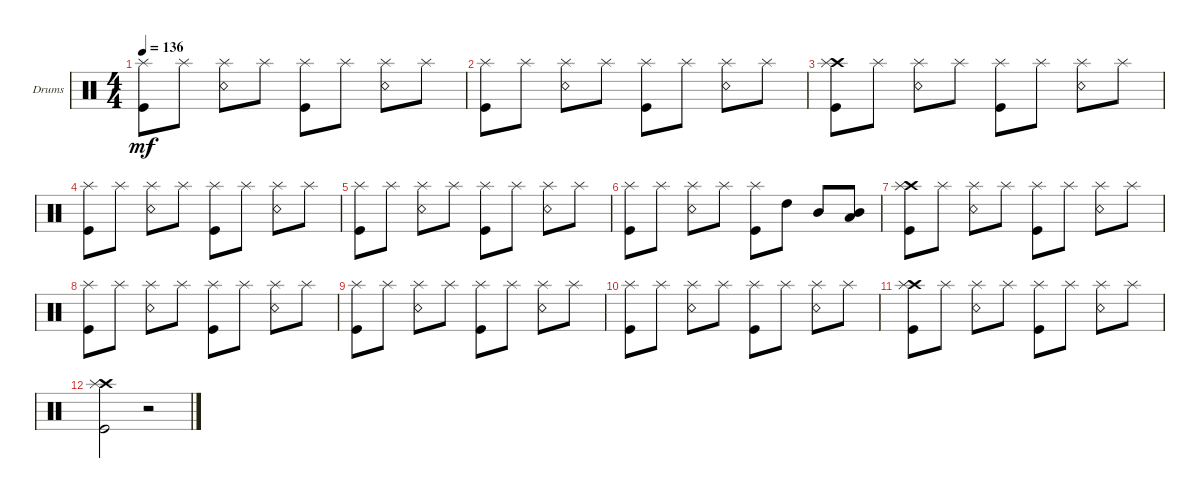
\defaultSystemsLayout 4
\bracketExtendMode groupsimilarinstruments
\firstSystemTrackNameOrientation horizontal
\otherSystemsTrackNameOrientation horizontal
\track ("Нюта" "Drums") {instrument percussion}
\staff {score}
\articulation defaults
\ts (4 4)
\tempo 136
\clef neutral
\ks c
("Kick (hit)" "Splash (hit)").8{dy mf} "Splash (hit)".8 ("Snare (rim shot)" "Splash (hit)").8 "Splash (hit)".8 ("Kick (hit)" "Splash (hit)").8 "Splash (hit)".8 ("Snare (rim shot)" "Splash (hit)").8 "Splash (hit)".8 |
("Kick (hit)" "Splash (hit)").8 "Splash (hit)".8 ("Snare (rim shot)" "Splash (hit)").8 "Splash (hit)".8 ("Kick (hit)" "Splash (hit)").8 "Splash (hit)".8 ("Snare (rim shot)" "Splash (hit)").8 "Splash (hit)".8 |
("Crash high (hit)" "Kick (hit)" "Splash (hit)").8 "Splash (hit)".8 ("Snare (rim shot)" "Splash (hit)").8 "Splash (hit)".8 ("Kick (hit)" "Splash (hit)").8 "Splash (hit)".8 ("Snare (rim shot)" "Splash (hit)").8 "Splash (hit)".8 |
("Kick (hit)" "Splash (hit)").8 "Splash (hit)".8 ("Snare (rim shot)" "Splash (hit)").8 "Splash (hit)".8 ("Kick (hit)" "Splash (hit)").8 "Splash (hit)".8 ("Snare (rim shot)" "Splash (hit)").8 "Splash (hit)".8 |
("Kick (hit)" "Splash (hit)").8 "Splash (hit)".8 ("Snare (rim shot)" "Splash (hit)").8 "Splash (hit)".8 ("Kick (hit)" "Splash (hit)").8 "Splash (hit)".8 ("Snare (rim shot)" "Splash (hit)").8 "Splash (hit)".8 |
("Kick (hit)" "Splash (hit)").8 "Splash (hit)".8 ("Snare (rim shot)" "Splash (hit)").8 "Splash (hit)".8 ("Kick (hit)" "Splash (hit)").8 "High Tom (hit)".8 "Mid Tom (hit)".8 ("Mid Tom (hit)" "Low Tom (hit)").8 |
("Crash high (hit)" "Kick (hit)" "Splash (hit)").8 "Splash (hit)".8 ("Snare (rim shot)" "Splash (hit)").8 "Splash (hit)".8 ("Kick (hit)" "Splash (hit)").8 "Splash (hit)".8 ("Snare (rim shot)" "Splash (hit)").8 "Splash (hit)".8 |
("Kick (hit)" "Splash (hit)").8 "Splash (hit)".8 ("Snare (rim shot)" "Splash (hit)").8 "Splash (hit)".8 ("Kick (hit)" "Splash (hit)").8 "Splash (hit)".8 ("Snare (rim shot)" "Splash (hit)").8 "Splash (hit)".8 |
("Kick (hit)" "Splash (hit)").8 "Splash (hit)".8 ("Snare (rim shot)" "Splash (hit)").8 "Splash (hit)".8 ("Kick (hit)" "Splash (hit)").8 "Splash (hit)".8 ("Snare (rim shot)" "Splash (hit)").8 "Splash (hit)".8 |
("Kick (hit)" "Splash (hit)").8 "Splash (hit)".8 ("Snare (rim shot)" "Splash (hit)").8 "Splash (hit)".8 ("Kick (hit)" "Splash (hit)").8 "Splash (hit)".8 ("Snare (rim shot)" "Splash (hit)").8 "Splash (hit)".8 |
("Crash high (hit)" "Kick (hit)" "Splash (hit)").8 "Splash (hit)".8 ("Snare (rim shot)" "Splash (hit)").8 "Splash (hit)".8 ("Kick (hit)" "Splash (hit)").8 "Splash (hit)".8 ("Snare (rim shot)" "Splash (hit)").8 "Splash (hit)".8 |
("Crash high (hit)" "Kick (hit)" "Splash (hit)").2 r.2
